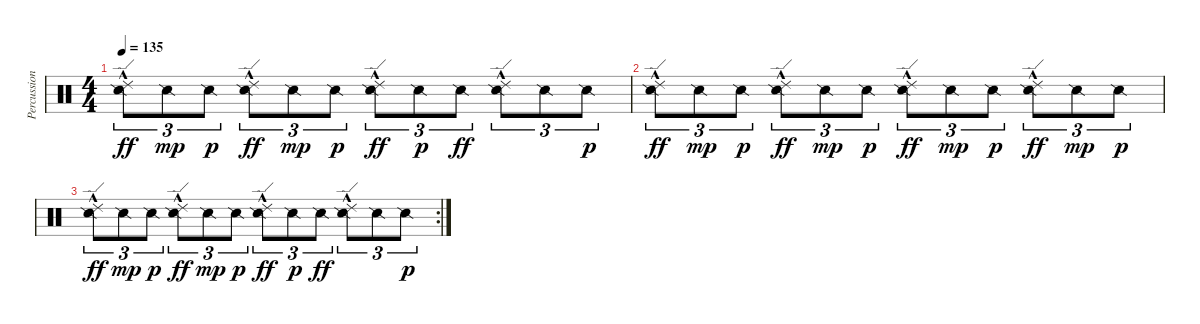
\track ("Percussion" "Percussion") {instrument percussion}
\staff {score}
\articulation defaults
\ts (4 4)
\tempo 135
\clef neutral
\ks c
("Snare (side stick) 2" "Ride (edge) 2"{hac}).8{tu (3 2) dy ff} "Snare (side stick) 2".8{tu (3 2) dy mp} "Snare (side stick) 2".8{tu (3 2) dy p} ("Snare (side stick) 2" "Ride (edge) 2"{hac}).8{tu (3 2) dy ff} "Snare (side stick) 2".8{tu (3 2) dy mp} "Snare (side stick) 2".8{tu (3 2) dy p} ("Snare (side stick) 2" "Ride (edge) 2"{hac}).8{tu (3 2) dy ff} "Snare (side stick) 2".8{tu (3 2) dy p} "Snare (side stick) 2".8{tu (3 2) dy ff} ("Snare (side stick) 2" "Ride (edge) 2"{hac}).8{tu (3 2)} "Snare (side stick) 2".8{tu (3 2)} "Snare (side stick) 2".8{tu (3 2) dy p} |
("Snare (side stick) 2" "Ride (edge) 2"{hac}).8{tu (3 2) dy ff} "Snare (side stick) 2".8{tu (3 2) dy mp} "Snare (side stick) 2".8{tu (3 2) dy p} ("Snare (side stick) 2" "Ride (edge) 2"{hac}).8{tu (3 2) dy ff} "Snare (side stick) 2".8{tu (3 2) dy mp} "Snare (side stick) 2".8{tu (3 2) dy p} ("Snare (side stick) 2" "Ride (edge) 2"{hac}).8{tu (3 2) dy ff} "Snare (side stick) 2".8{tu (3 2) dy mp} "Snare (side stick) 2".8{tu (3 2) dy p} ("Snare (side stick) 2" "Ride (edge) 2"{hac}).8{tu (3 2) dy ff} "Snare (side stick) 2".8{tu (3 2) dy mp} "Snare (side stick) 2".8{tu (3 2) dy p} |
\rc 2
("Snare (side stick) 2" "Ride (edge) 2"{hac}).8{tu (3 2) dy ff} "Snare (side stick) 2".8{tu (3 2) dy mp} "Snare (side stick) 2".8{tu (3 2) dy p} ("Snare (side stick) 2" "Ride (edge) 2"{hac}).8{tu (3 2) dy ff} "Snare (side stick) 2".8{tu (3 2) dy mp} "Snare (side stick) 2".8{tu (3 2) dy p} ("Snare (side stick) 2" "Ride (edge) 2"{hac}).8{tu (3 2) dy ff} "Snare (side stick) 2".8{tu (3 2) dy p} "Snare (side stick) 2".8{tu (3 2) dy ff} ("Snare (side stick) 2" "Ride (edge) 2"{hac}).8{tu (3 2)} "Snare (side stick) 2".8{tu (3 2)} "Snare (side stick) 2".8{tu (3 2) dy p}
